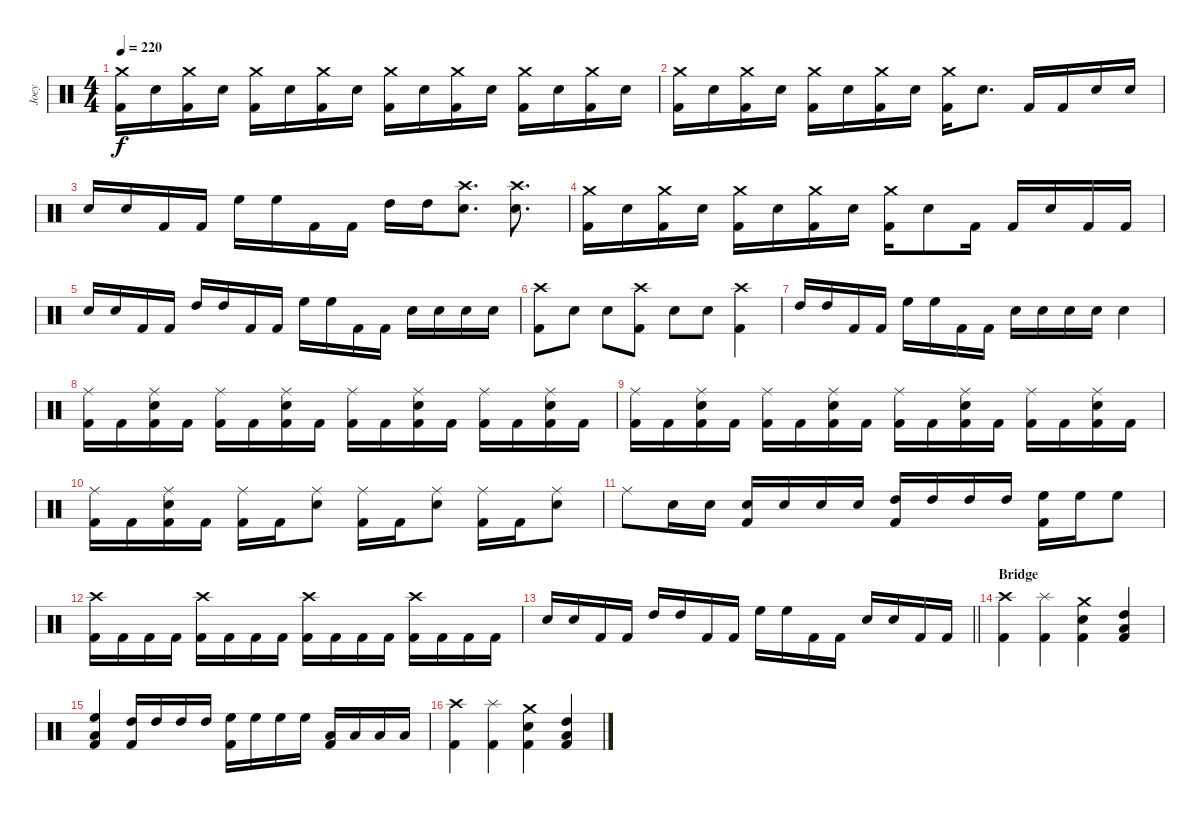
\track ("Joey" "Joey") {instrument percussion}
\staff {score}
\articulation defaults
\ts (4 4)
\tempo 220
\clef neutral
\ks c
("Crash medium (hit)" "Kick (hit) 2").16{dy f} "Electric Snare (hit)".16 ("Crash medium (hit)" "Kick (hit) 2").16 "Electric Snare (hit)".16 ("Crash medium (hit)" "Kick (hit) 2").16 "Electric Snare (hit)".16 ("Crash medium (hit)" "Kick (hit) 2").16 "Electric Snare (hit)".16 ("Crash medium (hit)" "Kick (hit) 2").16 "Electric Snare (hit)".16 ("Crash medium (hit)" "Kick (hit) 2").16 "Electric Snare (hit)".16 ("Crash medium (hit)" "Kick (hit) 2").16 "Electric Snare (hit)".16 ("Crash medium (hit)" "Kick (hit) 2").16 "Electric Snare (hit)".16 |
("Crash medium (hit)" "Kick (hit) 2").16 "Electric Snare (hit)".16 ("Crash medium (hit)" "Kick (hit) 2").16 "Electric Snare (hit)".16 ("Crash medium (hit)" "Kick (hit) 2").16 "Electric Snare (hit)".16 ("Crash medium (hit)" "Kick (hit) 2").16 "Electric Snare (hit)".16 ("Crash medium (hit)" "Kick (hit) 2").16 "Electric Snare (hit)".8{d} "Kick (hit) 2".16 "Kick (hit) 2".16 "Electric Snare (hit)".16 "Electric Snare (hit)".16 |
"Electric Snare (hit)".16 "Electric Snare (hit)".16 "Kick (hit) 2".16 "Kick (hit) 2".16 "High Floor Tom (hit)".16 "High Floor Tom (hit)".16 "Kick (hit) 2".16 "Kick (hit) 2".16 "High Tom (hit)".16 "High Tom (hit)".16 ("Crash high (hit)" "Electric Snare (hit)").8{d} ("Crash high (hit)" "Electric Snare (hit)").8{d} |
("Crash medium (hit)" "Kick (hit) 2").16 "Electric Snare (hit)".16 ("Crash medium (hit)" "Kick (hit) 2").16 "Electric Snare (hit)".16 ("Crash medium (hit)" "Kick (hit) 2").16 "Electric Snare (hit)".16 ("Crash medium (hit)" "Kick (hit) 2").16 "Electric Snare (hit)".16 ("Crash medium (hit)" "Kick (hit) 2").16 "Electric Snare (hit)".8 "Kick (hit) 2".16 "Kick (hit) 2".16 "Electric Snare (hit)".16 "Kick (hit) 2".16 "Kick (hit) 2".16 |
"Electric Snare (hit)".16 "Electric Snare (hit)".16 "Kick (hit) 2".16 "Kick (hit) 2".16 "High Tom (hit)".16 "High Tom (hit)".16 "Kick (hit) 2".16 "Kick (hit) 2".16 "High Floor Tom (hit)".16 "High Floor Tom (hit)".16 "Kick (hit) 2".16 "Kick (hit) 2".16 "Electric Snare (hit)".16 "Electric Snare (hit)".16 "Electric Snare (hit)".16 "Electric Snare (hit)".16 |
("Crash high (hit)" "Kick (hit) 2").8 "Electric Snare (hit)".8 "Electric Snare (hit)".8 ("Crash high (hit)" "Kick (hit) 2").8 "Electric Snare (hit)".8 "Electric Snare (hit)".8 ("Crash high (hit)" "Kick (hit) 2").4 |
"High Tom (hit)".16 "High Tom (hit)".16 "Kick (hit) 2".16 "Kick (hit) 2".16 "High Floor Tom (hit)".16 "High Floor Tom (hit)".16 "Kick (hit) 2".16 "Kick (hit) 2".16 "Electric Snare (hit)".16 "Electric Snare (hit)".16 "Electric Snare (hit)".16 "Electric Snare (hit)".16 "Electric Snare (hit)".4 |
("Ride (middle)" "Kick (hit) 2").16 "Kick (hit) 2".16 ("Ride (middle)" "Electric Snare (hit)" "Kick (hit) 2").16 "Kick (hit) 2".16 ("Ride (middle)" "Kick (hit) 2").16 "Kick (hit) 2".16 ("Ride (middle)" "Electric Snare (hit)" "Kick (hit) 2").16 "Kick (hit) 2".16 ("Ride (middle)" "Kick (hit) 2").16 "Kick (hit) 2".16 ("Ride (middle)" "Electric Snare (hit)" "Kick (hit) 2").16 "Kick (hit) 2".16 ("Ride (middle)" "Kick (hit) 2").16 "Kick (hit) 2".16 ("Ride (middle)" "Electric Snare (hit)" "Kick (hit) 2").16 "Kick (hit) 2".16 |
("Ride (middle)" "Kick (hit) 2").16 "Kick (hit) 2".16 ("Ride (middle)" "Electric Snare (hit)" "Kick (hit) 2").16 "Kick (hit) 2".16 ("Ride (middle)" "Kick (hit) 2").16 "Kick (hit) 2".16 ("Ride (middle)" "Electric Snare (hit)" "Kick (hit) 2").16 "Kick (hit) 2".16 ("Ride (middle)" "Kick (hit) 2").16 "Kick (hit) 2".16 ("Ride (middle)" "Electric Snare (hit)" "Kick (hit) 2").16 "Kick (hit) 2".16 ("Ride (middle)" "Kick (hit) 2").16 "Kick (hit) 2".16 ("Ride (middle)" "Electric Snare (hit)" "Kick (hit) 2").16 "Kick (hit) 2".16 |
("Ride (middle)" "Kick (hit) 2").16 "Kick (hit) 2".16 ("Ride (middle)" "Electric Snare (hit)" "Kick (hit) 2").16 "Kick (hit) 2".16 ("Ride (middle)" "Kick (hit) 2").16 "Kick (hit) 2".16 ("Ride (middle)" "Electric Snare (hit)").8 ("Ride (middle)" "Kick (hit) 2").16 "Kick (hit) 2".16 ("Ride (middle)" "Electric Snare (hit)").8 ("Ride (middle)" "Kick (hit) 2").16 "Kick (hit) 2".16 ("Ride (middle)" "Electric Snare (hit)").8 |
"Ride (middle)".8 "Electric Snare (hit)".16 "Electric Snare (hit)".16 ("Electric Snare (hit)" "Kick (hit) 2").16 "Electric Snare (hit)".16 "Electric Snare (hit)".16 "Electric Snare (hit)".16 ("High Tom (hit)" "Kick (hit) 2").16 "High Tom (hit)".16 "High Tom (hit)".16 "High Tom (hit)".16 ("High Floor Tom (hit)" "Kick (hit) 2").16 "High Floor Tom (hit)".16 "High Floor Tom (hit)".8 |
("Crash high (hit)" "Kick (hit) 2").16 "Kick (hit) 2".16 "Kick (hit) 2".16 "Kick (hit) 2".16 ("Crash high (hit)" "Kick (hit) 2").16 "Kick (hit) 2".16 "Kick (hit) 2".16 "Kick (hit) 2".16 ("Crash high (hit)" "Kick (hit) 2").16 "Kick (hit) 2".16 "Kick (hit) 2".16 "Kick (hit) 2".16 ("Crash high (hit)" "Kick (hit) 2").16 "Kick (hit) 2".16 "Kick (hit) 2".16 "Kick (hit) 2".16 |
\barLineRight lightlight "Electric Snare (hit)".16 "Electric Snare (hit)".16 "Kick (hit) 2".16 "Kick (hit) 2".16 "High Tom (hit)".16 "High Tom (hit)".16 "Kick (hit) 2".16 "Kick (hit) 2".16 "High Floor Tom (hit)".16 "High Floor Tom (hit)".16 "Kick (hit) 2".16 "Kick (hit) 2".16 "Electric Snare (hit)".16 "Electric Snare (hit)".16 "Kick (hit) 2".16 "Kick (hit) 2".16
|
\section ("" "Bridge")
("Crash high (hit)" "Kick (hit) 2").4 ("Splash (hit)" "Kick (hit) 2").4 ("Crash medium (hit)" "Electric Snare (hit)" "Kick (hit) 2").4 ("High Tom (hit)" "Low Floor Tom (hit)" "Kick (hit) 2").4 |
("High Floor Tom (hit)" "Low Floor Tom (hit)" "Kick (hit) 2").4 ("High Tom (hit)" "Kick (hit) 2").16 "High Tom (hit)".16 "High Tom (hit)".16 "High Tom (hit)".16 ("High Floor Tom (hit)" "Kick (hit) 2").16 "High Floor Tom (hit)".16 "High Floor Tom (hit)".16 "High Floor Tom (hit)".16 ("Low Floor Tom (hit)" "Kick (hit) 2").16 "Low Floor Tom (hit)".16 "Low Floor Tom (hit)".16 "Low Floor Tom (hit)".16 |
("Crash high (hit)" "Kick (hit) 2").4 ("Splash (hit)" "Kick (hit) 2").4 ("Crash medium (hit)" "Electric Snare (hit)" "Kick (hit) 2").4 ("High Tom (hit)" "Low Floor Tom (hit)" "Kick (hit) 2").4
